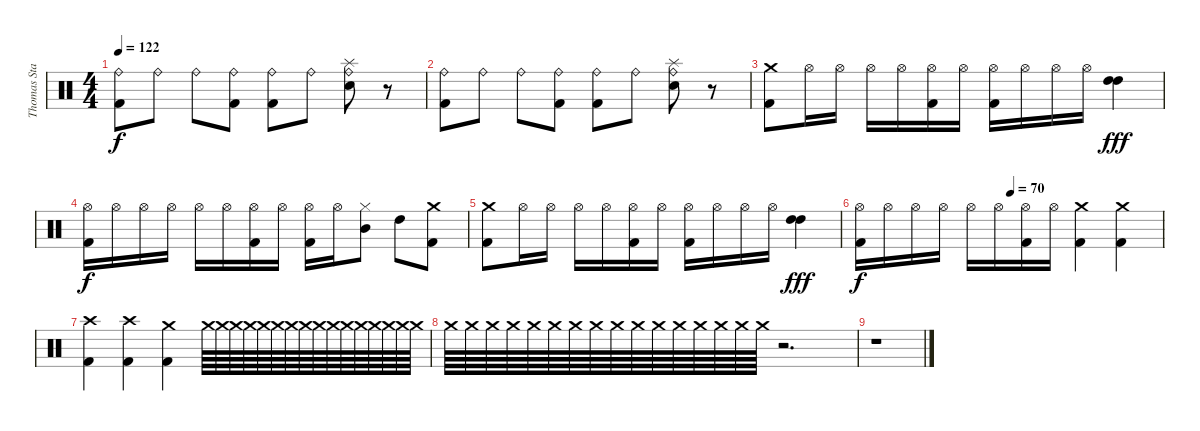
\track ("Thomas Stauch" "Thomas Sta") {instrument percussion}
\staff {score}
\articulation defaults
\ts (4 4)
\tempo 122
\clef neutral
\ks c
("Ride (bell)" "Kick (hit) 2").8{dy f} "Ride (bell)".8 "Ride (bell)".8 ("Ride (bell)" "Kick (hit) 2").8 ("Ride (bell)" "Kick (hit) 2").8 "Ride (bell)".8 ("Ride (bell)" "Splash (hit)" "Electric Snare (hit)").8 r.8 |
("Ride (bell)" "Kick (hit) 2").8 "Ride (bell)".8 "Ride (bell)".8 ("Ride (bell)" "Kick (hit) 2").8 ("Ride (bell)" "Kick (hit) 2").8 "Ride (bell)".8 ("Ride (bell)" "Splash (hit)" "Electric Snare (hit)").8 r.8 |
("Crash medium (hit)" "Kick (hit) 2").8 "Hi-Hat (open)".16 "Hi-Hat (open)".16 "Hi-Hat (open)".16 "Hi-Hat (open)".16 ("Hi-Hat (open)" "Kick (hit) 2").16 "Hi-Hat (open)".16 ("Hi-Hat (open)" "Kick (hit) 2").16 "Hi-Hat (open)".16 "Hi-Hat (open)".16 "Hi-Hat (open)".16 ("High Tom (hit)" "High Tom (hit)").4{dy fff} |
("Hi-Hat (open)" "Kick (hit) 2").16{dy f} "Hi-Hat (open)".16 "Hi-Hat (open)".16 "Hi-Hat (open)".16 "Hi-Hat (open)".16 "Hi-Hat (open)".16 ("Hi-Hat (open)" "Kick (hit) 2").16 "Hi-Hat (open)".16 ("Hi-Hat (open)" "Kick (hit) 2").16 "Hi-Hat (open)".16 ("Hi-Hat (closed)" "Mid Tom (hit)").8 "High Tom (hit)".8 ("Crash medium (hit)" "Kick (hit) 2").8 |
("Crash medium (hit)" "Kick (hit) 2").8 "Hi-Hat (open)".16 "Hi-Hat (open)".16 "Hi-Hat (open)".16 "Hi-Hat (open)".16 ("Hi-Hat (open)" "Kick (hit) 2").16 "Hi-Hat (open)".16 ("Hi-Hat (open)" "Kick (hit) 2").16 "Hi-Hat (open)".16 "Hi-Hat (open)".16 "Hi-Hat (open)".16 ("High Tom (hit)" "High Tom (hit)").4{dy fff} |
\tempo (70 0.5)
("Hi-Hat (open)" "Kick (hit) 2").16{dy f} "Hi-Hat (open)".16 "Hi-Hat (open)".16 "Hi-Hat (open)".16 "Hi-Hat (open)".16 "Hi-Hat (open)".16 ("Hi-Hat (open)" "Kick (hit) 2").16 "Hi-Hat (open)".16 ("Crash medium (hit)" "Kick (hit) 2").4 ("Crash medium (hit)" "Kick (hit) 2").4 |
("Crash high (hit)" "Kick (hit) 2").4 ("Crash high (hit)" "Kick (hit) 2").4 ("Crash medium (hit)" "Kick (hit) 2").4 "Crash medium (hit)".64 "Crash medium (hit)".64 "Crash medium (hit)".64 "Crash medium (hit)".64 "Crash medium (hit)".64 "Crash medium (hit)".64 "Crash medium (hit)".64 "Crash medium (hit)".64 "Crash medium (hit)".64 "Crash medium (hit)".64 "Crash medium (hit)".64 "Crash medium (hit)".64 "Crash medium (hit)".64 "Crash medium (hit)".64 "Crash medium (hit)".64 "Crash medium (hit)".64 |
"Crash medium (hit)".64 "Crash medium (hit)".64 "Crash medium (hit)".64 "Crash medium (hit)".64 "Crash medium (hit)".64 "Crash medium (hit)".64 "Crash medium (hit)".64 "Crash medium (hit)".64 "Crash medium (hit)".64 "Crash medium (hit)".64 "Crash medium (hit)".64 "Crash medium (hit)".64 "Crash medium (hit)".64 "Crash medium (hit)".64 "Crash medium (hit)".64 "Crash medium (hit)".64 r.2{d} |
r.1
